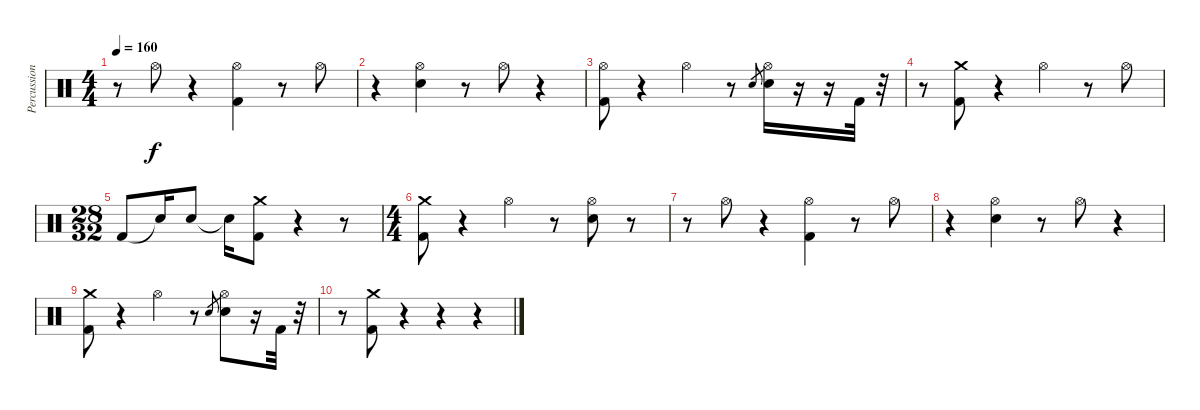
\track ("Percussion" "Percussion") {instrument percussion}
\staff {score}
\articulation defaults
\ts (4 4)
\tempo 160
\clef neutral
\ks c
r.8{dy f} "Hi-Hat (open)".8 r.4 ("Hi-Hat (open)" "Kick (hit) 2").4 r.8 "Hi-Hat (open)".8 |
r.4 ("Hi-Hat (open)" "Electric Snare (hit)").4 r.8 "Hi-Hat (open)".8 r.4 |
("Hi-Hat (open)" "Kick (hit) 2").8 r.4 "Hi-Hat (open)".4 r.8 "Electric Snare (hit)".8{gr} ("Hi-Hat (open)" "Electric Snare (hit)").16 r.16 r.16 "Kick (hit) 2".32 r.32 |
r.8 ("Crash medium (hit)" "Kick (hit) 2").8 r.4 "Hi-Hat (open)".4 r.8 "Hi-Hat (open)".8 |
\ts (28 32)
"Kick (hit) 2".8 "Snare (hit)"{t}.16 "Electric Snare (hit)".8 "Snare (hit)"{t}.16 ("Crash medium (hit)" "Kick (hit) 2").8 r.4 r.8 |
\ts (4 4)
("Crash medium (hit)" "Kick (hit) 2").8 r.4 "Hi-Hat (open)".4 r.8 ("Hi-Hat (open)" "Electric Snare (hit)").8 r.8 |
r.8 "Hi-Hat (open)".8 r.4 ("Hi-Hat (open)" "Kick (hit) 2").4 r.8 "Hi-Hat (open)".8 |
r.4 ("Hi-Hat (open)" "Electric Snare (hit)").4 r.8 "Hi-Hat (open)".8 r.4 |
("Crash medium (hit)" "Kick (hit) 2").8 r.4 "Hi-Hat (open)".4 r.8 "Electric Snare (hit)".8{gr} ("Hi-Hat (open)" "Electric Snare (hit)").8 r.16 "Kick (hit) 2".32 r.32 |
r.8 ("Crash medium (hit)" "Kick (hit) 2").8 r.4 r.4 r.4
